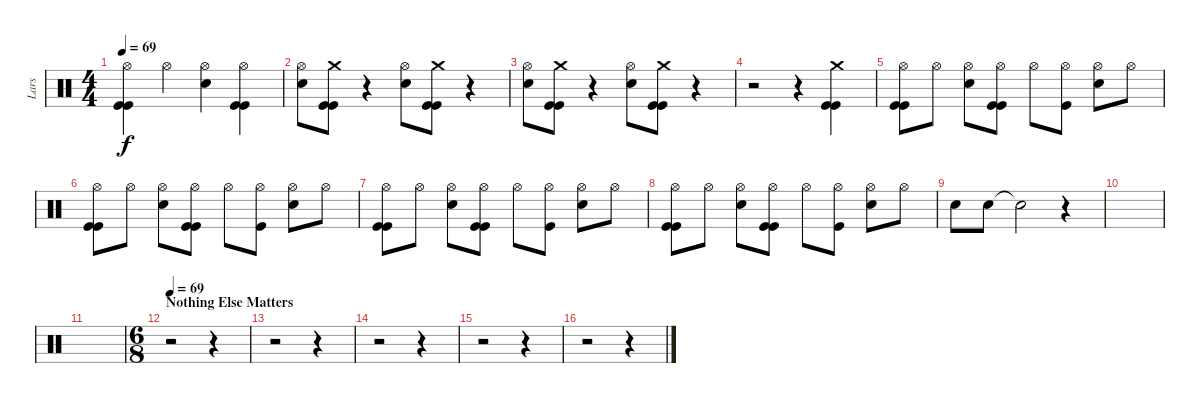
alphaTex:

\track ("Lars" "Lars") {instrument percussion}
\staff {score}
\articulation defaults
\ts (4 4)
\tempo 69
\clef neutral
\ks c
("Hi-Hat (open)" "Kick (hit)" "Kick (hit)").4{dy f} "Hi-Hat (open)".4 ("Hi-Hat (open)" "Electric Snare (hit)").4 ("Hi-Hat (open)" "Kick (hit)" "Kick (hit)").4 |
("Hi-Hat (open)" "Electric Snare (hit)").8 ("Kick (hit)" "Kick (hit)" "Crash medium (hit)").8 r.4 ("Hi-Hat (open)" "Electric Snare (hit)").8 ("Kick (hit)" "Kick (hit)" "Crash medium (hit)").8 r.4 |
("Hi-Hat (open)" "Electric Snare (hit)").8 ("Kick (hit)" "Kick (hit)" "Crash medium (hit)").8 r.4 ("Hi-Hat (open)" "Electric Snare (hit)").8 ("Kick (hit)" "Kick (hit)" "Crash medium (hit)").8 r.4 |
r.2 r.4 ("Kick (hit)" "Kick (hit)" "Crash medium (hit)").4 |
("Hi-Hat (open)" "Kick (hit)" "Kick (hit)").8 "Hi-Hat (open)".8 ("Hi-Hat (open)" "Electric Snare (hit)").8 ("Hi-Hat (open)" "Kick (hit)" "Kick (hit)").8 "Hi-Hat (open)".8 ("Hi-Hat (open)" "Kick (hit)").8 ("Hi-Hat (open)" "Electric Snare (hit)").8 "Hi-Hat (open)".8 |
("Hi-Hat (open)" "Kick (hit)" "Kick (hit)").8 "Hi-Hat (open)".8 ("Hi-Hat (open)" "Electric Snare (hit)").8 ("Hi-Hat (open)" "Kick (hit)" "Kick (hit)").8 "Hi-Hat (open)".8 ("Hi-Hat (open)" "Kick (hit)").8 ("Hi-Hat (open)" "Electric Snare (hit)").8 "Hi-Hat (open)".8 |
("Hi-Hat (open)" "Kick (hit)" "Kick (hit)").8 "Hi-Hat (open)".8 ("Hi-Hat (open)" "Electric Snare (hit)").8 ("Hi-Hat (open)" "Kick (hit)" "Kick (hit)").8 "Hi-Hat (open)".8 ("Hi-Hat (open)" "Kick (hit)").8 ("Hi-Hat (open)" "Electric Snare (hit)").8 "Hi-Hat (open)".8 |
("Hi-Hat (open)" "Kick (hit)" "Kick (hit)").8 "Hi-Hat (open)".8 ("Hi-Hat (open)" "Electric Snare (hit)").8 ("Hi-Hat (open)" "Kick (hit)" "Kick (hit)").8 "Hi-Hat (open)".8 ("Hi-Hat (open)" "Kick (hit)").8 ("Hi-Hat (open)" "Electric Snare (hit)").8 "Hi-Hat (open)".8 |
"Electric Snare (hit)".8 "Electric Snare (hit)".8 "Snare (hit)"{t}.2 r.4 |
|
|
\ts (6 8)
\section ("" "Nothing Else Matters")
\tempo 69
r.2 r.4 |
r.2 r.4 |
r.2 r.4 |
r.2 r.4 |
r.2 r.4
